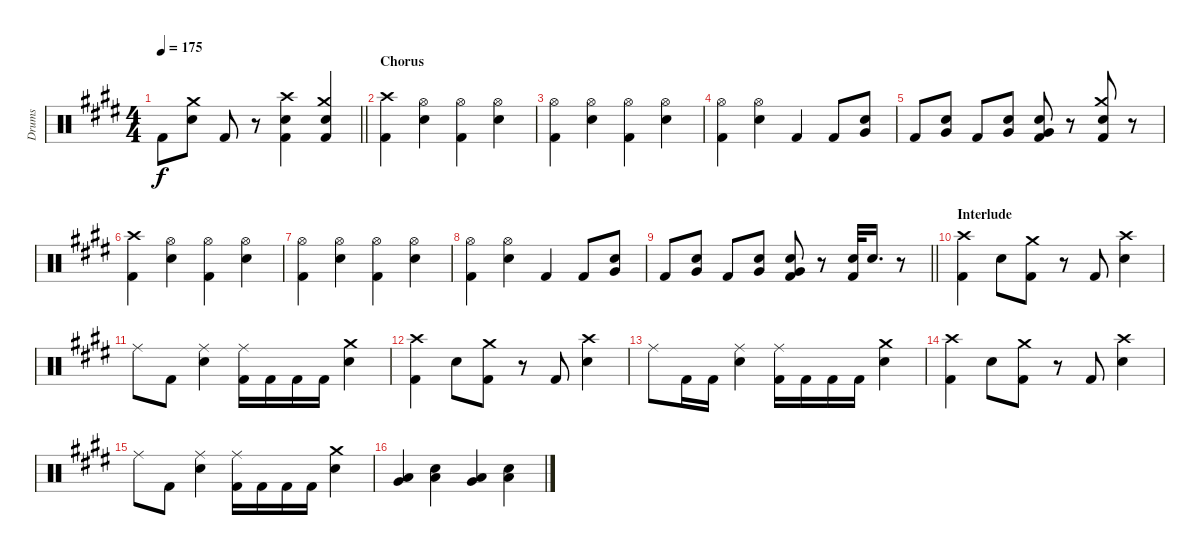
\track ("Drums" "Drums") {instrument percussion}
\staff {score}
\articulation defaults
\ts (4 4)
\tempo 175
\clef neutral
\barLineRight lightlight
\ks e "Kick (hit) 2".8{dy f}
("Crash medium (hit)" "Electric Snare (hit)").8 "Kick (hit) 2".8 r.8 ("Crash high (hit)" "Electric Snare (hit)" "Kick (hit) 2").4 ("Crash medium (hit)" "Electric Snare (hit)" "Kick (hit) 2").4 |
\section ("" "Chorus")
("Crash high (hit)" "Kick (hit) 2").4 ("Hi-Hat (open)" "Electric Snare (hit)").4 ("Hi-Hat (open)" "Kick (hit) 2").4 ("Hi-Hat (open)" "Electric Snare (hit)").4 |
("Hi-Hat (open)" "Kick (hit) 2").4 ("Hi-Hat (open)" "Electric Snare (hit)").4 ("Hi-Hat (open)" "Kick (hit) 2").4 ("Hi-Hat (open)" "Electric Snare (hit)").4 |
("Hi-Hat (open)" "Kick (hit) 2").4 ("Hi-Hat (open)" "Electric Snare (hit)").4 "Kick (hit) 2".4 "Kick (hit) 2".8 ("Electric Snare (hit)" "Very Low Tom (hit)").8 |
"Kick (hit) 2".8 ("Electric Snare (hit)" "Very Low Tom (hit)").8 "Kick (hit) 2".8 ("Electric Snare (hit)" "Very Low Tom (hit)").8 ("Electric Snare (hit)" "Very Low Tom (hit)" "Kick (hit) 2").8 r.8 ("Crash medium (hit)" "Electric Snare (hit)" "Kick (hit) 2").8 r.8 |
("Crash high (hit)" "Kick (hit) 2").4 ("Hi-Hat (open)" "Electric Snare (hit)").4 ("Hi-Hat (open)" "Kick (hit) 2").4 ("Hi-Hat (open)" "Electric Snare (hit)").4 |
("Hi-Hat (open)" "Kick (hit) 2").4 ("Hi-Hat (open)" "Electric Snare (hit)").4 ("Hi-Hat (open)" "Kick (hit) 2").4 ("Hi-Hat (open)" "Electric Snare (hit)").4 |
("Hi-Hat (open)" "Kick (hit) 2").4 ("Hi-Hat (open)" "Electric Snare (hit)").4 "Kick (hit) 2".4 "Kick (hit) 2".8 ("Electric Snare (hit)" "Very Low Tom (hit)").8 |
\barLineRight lightlight "Kick (hit) 2".8
("Electric Snare (hit)" "Very Low Tom (hit)").8 "Kick (hit) 2".8 ("Electric Snare (hit)" "Very Low Tom (hit)").8 ("Electric Snare (hit)" "Very Low Tom (hit)" "Kick (hit) 2").8 r.8 ("Electric Snare (hit)" "Kick (hit) 2").32 "Electric Snare (hit)".16{d} r.8 |
\section ("" "Interlude")
("Crash high (hit)" "Kick (hit) 2").4 "Electric Snare (hit)".8 ("Crash medium (hit)" "Kick (hit) 2").8 r.8 "Kick (hit) 2".8 ("Crash high (hit)" "Electric Snare (hit)").4 |
"Ride (middle)".8 "Kick (hit) 2".8 ("Ride (middle)" "Electric Snare (hit)").4 ("Ride (middle)" "Kick (hit) 2").16 "Kick (hit) 2".16 "Kick (hit) 2".16 "Kick (hit) 2".16 ("Crash medium (hit)" "Electric Snare (hit)").4 |
("Crash high (hit)" "Kick (hit) 2").4 "Electric Snare (hit)".8 ("Crash medium (hit)" "Kick (hit) 2").8 r.8 "Kick (hit) 2".8 ("Crash high (hit)" "Electric Snare (hit)").4 |
"Ride (middle)".8 "Kick (hit) 2".16 "Kick (hit) 2".16 ("Ride (middle)" "Electric Snare (hit)").4 ("Ride (middle)" "Kick (hit) 2").16 "Kick (hit) 2".16 "Kick (hit) 2".16 "Kick (hit) 2".16 ("Crash medium (hit)" "Electric Snare (hit)").4 |
("Crash high (hit)" "Kick (hit) 2").4 "Electric Snare (hit)".8 ("Crash medium (hit)" "Kick (hit) 2").8 r.8 "Kick (hit) 2".8 ("Crash high (hit)" "Electric Snare (hit)").4 |
"Ride (middle)".8 "Kick (hit) 2".8 ("Ride (middle)" "Electric Snare (hit)").4 ("Ride (middle)" "Kick (hit) 2").16 "Kick (hit) 2".16 "Kick (hit) 2".16 "Kick (hit) 2".16 ("Crash medium (hit)" "Electric Snare (hit)").4 |
("Very Low Tom (hit)" "Low Floor Tom (hit)").4 ("Electric Snare (hit)" "Low Floor Tom (hit)").4 ("Very Low Tom (hit)" "Low Floor Tom (hit)").4 ("Electric Snare (hit)" "Low Floor Tom (hit)").4
